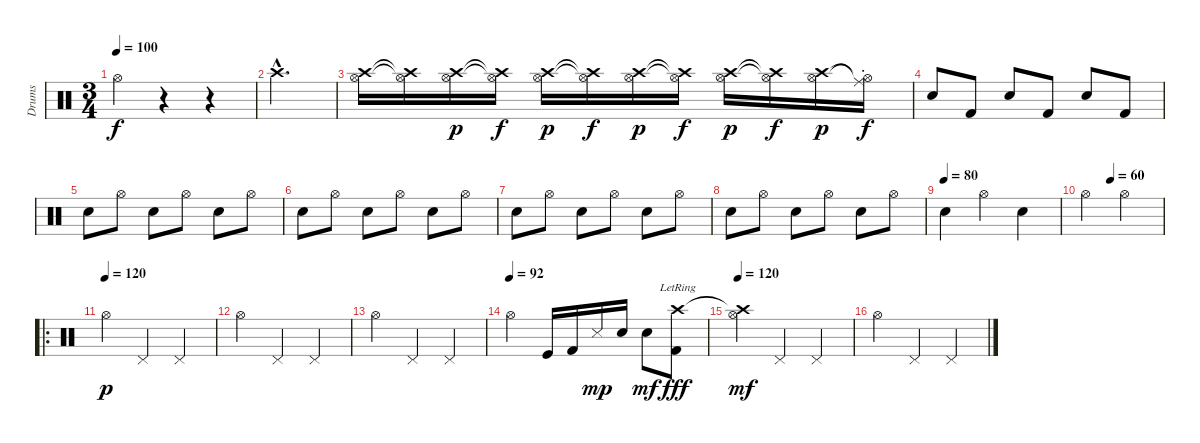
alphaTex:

\track ("Drums" "Drums") {instrument percussion}
\staff {score}
\articulation defaults
\ts (3 4)
\tempo 100
\clef neutral
\ks c "Hi-Hat (open)".4{dy f}
r.4 r.4 |
"Crash high (hit)"{hac}.2{d} |
("Hi-Hat (open)" "Crash high (hit)").16 ("Hi-Hat (open)"{t} "Crash high (hit)"{t}).16 ("Hi-Hat (open)" "Crash high (hit)").16{dy p} ("Hi-Hat (open)"{t} "Crash high (hit)"{t}).16{dy f} ("Hi-Hat (open)" "Crash high (hit)").16{dy p} ("Hi-Hat (open)"{t} "Crash high (hit)"{t}).16{dy f} ("Hi-Hat (open)" "Crash high (hit)").16{dy p} ("Hi-Hat (open)"{t} "Crash high (hit)"{t}).16{dy f} ("Hi-Hat (open)" "Crash high (hit)").16{dy p} ("Hi-Hat (open)"{t} "Crash high (hit)"{t}).16{dy f} ("Hi-Hat (open)" "Crash high (hit)").16{dy p} ("Hi-Hat (open)"{t} "Ride (choke)"{t}).16{dy f} |
"Snare (hit) 2".8 "Kick (hit) 2".8 "Snare (hit) 2".8 "Kick (hit) 2".8 "Snare (hit) 2".8 "Kick (hit) 2".8 |
"Snare (hit) 2".8 "Hi-Hat (open)".8 "Snare (hit) 2".8 "Hi-Hat (open)".8 "Snare (hit) 2".8 "Hi-Hat (open)".8 |
"Snare (hit) 2".8 "Hi-Hat (open)".8 "Snare (hit) 2".8 "Hi-Hat (open)".8 "Snare (hit) 2".8 "Hi-Hat (open)".8 |
"Snare (hit) 2".8 "Hi-Hat (open)".8 "Snare (hit) 2".8 "Hi-Hat (open)".8 "Snare (hit) 2".8 "Hi-Hat (open)".8 |
"Snare (hit) 2".8 "Hi-Hat (open)".8 "Snare (hit) 2".8 "Hi-Hat (open)".8 "Snare (hit) 2".8 "Hi-Hat (open)".8 |
\tempo (80)
"Snare (hit) 2".4 "Hi-Hat (open)".4 "Snare (hit) 2".4 |
\tempo (60 0.3333333333333333)
"Hi-Hat (open)".4 "Hi-Hat (open)".4 |
\ro
\tempo (120)
"Hi-Hat (open)".4{dy p volume 7} "Pedal Hi-Hat (hit)".4 "Pedal Hi-Hat (hit)".4 |
"Hi-Hat (open)".4 "Pedal Hi-Hat (hit)".4 "Pedal Hi-Hat (hit)".4 |
"Hi-Hat (open)".4 "Pedal Hi-Hat (hit)".4 "Pedal Hi-Hat (hit)".4 |
\tempo (92)
"Hi-Hat (open)".4 "Kick (hit)".16 "Kick (hit) 2".16 "Snare (side stick) 3".16{dy mp} "Snare (hit) 2".16 "Snare (hit) 2".8{dy mf} ("Kick (hit) 2" "Crash high (hit)"{lr}).8{dy fff} |
\tempo 120
("Hi-Hat (open)" "Crash high (hit)"{t}).4{dy mf volume 10} "Pedal Hi-Hat (hit)".4 "Pedal Hi-Hat (hit)".4 |
"Hi-Hat (open)".4 "Pedal Hi-Hat (hit)".4 "Pedal Hi-Hat (hit)".4
